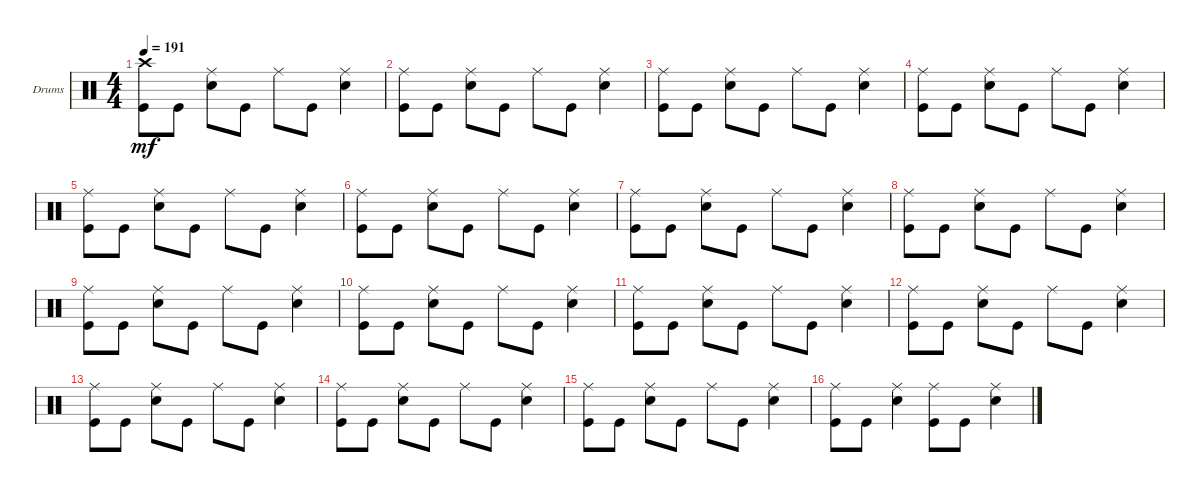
\defaultSystemsLayout 4
\bracketExtendMode groupsimilarinstruments
\firstSystemTrackNameOrientation horizontal
\otherSystemsTrackNameOrientation horizontal
\track ("Drumkit" "Drums") {instrument percussion}
\staff {score}
\articulation defaults
\ts (4 4)
\tempo 191
\clef neutral
\scale
0.333333
\ks c
("Crash high (hit)" "Kick (hit)").8{dy mf} "Kick (hit)".8 ("Snare (hit) 2" "Ride (middle)").8 "Kick (hit)".8 "Ride (middle)".8 "Kick (hit)".8 ("Snare (hit) 2" "Ride (middle)").4 |
\scale
0.333333 ("Kick (hit)" "Ride (middle)").8 "Kick (hit)".8 ("Snare (hit) 2" "Ride (middle)").8 "Kick (hit)".8 "Ride (middle)".8 "Kick (hit)".8 ("Snare (hit) 2" "Ride (middle)").4 |
\scale
0.333333 ("Kick (hit)" "Ride (middle)").8 "Kick (hit)".8 ("Snare (hit) 2" "Ride (middle)").8 "Kick (hit)".8 "Ride (middle)".8 "Kick (hit)".8 ("Snare (hit) 2" "Ride (middle)").4 |
\scale
0.333333 ("Kick (hit)" "Ride (middle)").8 "Kick (hit)".8 ("Snare (hit) 2" "Ride (middle)").8 "Kick (hit)".8 "Ride (middle)".8 "Kick (hit)".8 ("Snare (hit) 2" "Ride (middle)").4 |
\scale
0.333333 ("Kick (hit)" "Ride (middle)").8 "Kick (hit)".8 ("Snare (hit) 2" "Ride (middle)").8 "Kick (hit)".8 "Ride (middle)".8 "Kick (hit)".8 ("Snare (hit) 2" "Ride (middle)").4 |
\scale
0.333333 ("Kick (hit)" "Ride (middle)").8 "Kick (hit)".8 ("Snare (hit) 2" "Ride (middle)").8 "Kick (hit)".8 "Ride (middle)".8 "Kick (hit)".8 ("Snare (hit) 2" "Ride (middle)").4 |
\scale
0.333333 ("Kick (hit)" "Ride (middle)").8 "Kick (hit)".8 ("Snare (hit) 2" "Ride (middle)").8 "Kick (hit)".8 "Ride (middle)".8 "Kick (hit)".8 ("Snare (hit) 2" "Ride (middle)").4 |
\scale
0.333333 ("Kick (hit)" "Ride (middle)").8 "Kick (hit)".8 ("Snare (hit) 2" "Ride (middle)").8 "Kick (hit)".8 "Ride (middle)".8 "Kick (hit)".8 ("Snare (hit) 2" "Ride (middle)").4 |
\scale
0.333333 ("Kick (hit)" "Ride (middle)").8 "Kick (hit)".8 ("Snare (hit) 2" "Ride (middle)").8 "Kick (hit)".8 "Ride (middle)".8 "Kick (hit)".8 ("Snare (hit) 2" "Ride (middle)").4 |
\scale
0.333333 ("Kick (hit)" "Ride (middle)").8 "Kick (hit)".8 ("Snare (hit) 2" "Ride (middle)").8 "Kick (hit)".8 "Ride (middle)".8 "Kick (hit)".8 ("Snare (hit) 2" "Ride (middle)").4 |
\scale
0.333333 ("Kick (hit)" "Ride (middle)").8 "Kick (hit)".8 ("Snare (hit) 2" "Ride (middle)").8 "Kick (hit)".8 "Ride (middle)".8 "Kick (hit)".8 ("Snare (hit) 2" "Ride (middle)").4 |
\scale
0.333333 ("Kick (hit)" "Ride (middle)").8 "Kick (hit)".8 ("Snare (hit) 2" "Ride (middle)").8 "Kick (hit)".8 "Ride (middle)".8 "Kick (hit)".8 ("Snare (hit) 2" "Ride (middle)").4 |
\scale
0.333333 ("Kick (hit)" "Ride (middle)").8 "Kick (hit)".8 ("Snare (hit) 2" "Ride (middle)").8 "Kick (hit)".8 "Ride (middle)".8 "Kick (hit)".8 ("Snare (hit) 2" "Ride (middle)").4 |
\scale
0.333333 ("Kick (hit)" "Ride (middle)").8 "Kick (hit)".8 ("Snare (hit) 2" "Ride (middle)").8 "Kick (hit)".8 "Ride (middle)".8 "Kick (hit)".8 ("Snare (hit) 2" "Ride (middle)").4 |
\scale
0.333333 ("Kick (hit)" "Ride (middle)").8 "Kick (hit)".8 ("Snare (hit) 2" "Ride (middle)").8 "Kick (hit)".8 "Ride (middle)".8 "Kick (hit)".8 ("Snare (hit) 2" "Ride (middle)").4 |
\scale
0.333333 ("Kick (hit)" "Ride (middle)").8 "Kick (hit)".8 ("Snare (hit) 2" "Ride (middle)").4 ("Kick (hit)" "Ride (middle)").8 "Kick (hit)".8 ("Snare (hit) 2" "Ride (middle)").4
